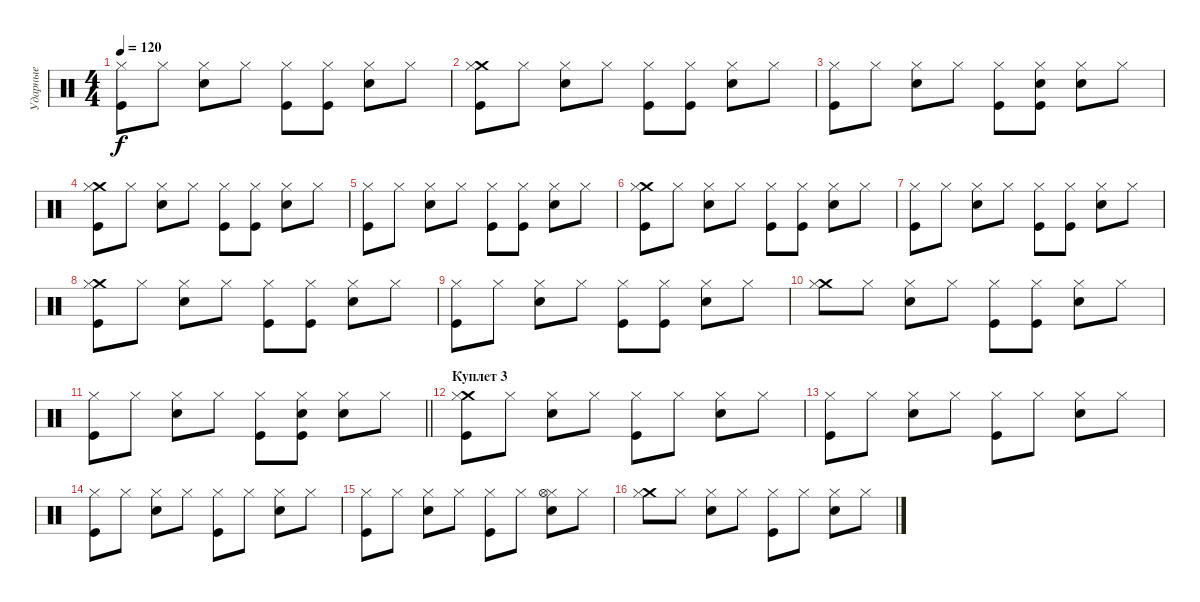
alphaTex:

\track ("Ударные" "Ударные") {instrument percussion}
\staff {score}
\articulation defaults
\ts (4 4)
\tempo 120
\clef neutral
\ks c
("Kick (hit)" "Hi-Hat (closed)").8{dy f} "Hi-Hat (closed)".8 ("Snare (hit) 2" "Hi-Hat (closed)").8 "Hi-Hat (closed)".8 ("Kick (hit)" "Hi-Hat (closed)").8 ("Kick (hit)" "Hi-Hat (closed)").8 ("Snare (hit) 2" "Hi-Hat (closed)").8 "Hi-Hat (closed)".8 |
("Crash medium (hit)" "Hi-Hat (closed)" "Kick (hit)").8 "Hi-Hat (closed)".8 ("Snare (hit) 2" "Hi-Hat (closed)").8 "Hi-Hat (closed)".8 ("Kick (hit)" "Hi-Hat (closed)").8 ("Kick (hit)" "Hi-Hat (closed)").8 ("Snare (hit) 2" "Hi-Hat (closed)").8 "Hi-Hat (closed)".8 |
("Kick (hit)" "Hi-Hat (closed)").8 "Hi-Hat (closed)".8 ("Snare (hit) 2" "Hi-Hat (closed)").8 "Hi-Hat (closed)".8 ("Kick (hit)" "Hi-Hat (closed)").8 ("Kick (hit)" "Hi-Hat (closed)" "Snare (hit) 2").8 ("Snare (hit) 2" "Hi-Hat (closed)").8 "Hi-Hat (closed)".8 |
("Crash medium (hit)" "Hi-Hat (closed)" "Kick (hit)").8 "Hi-Hat (closed)".8 ("Snare (hit) 2" "Hi-Hat (closed)").8 "Hi-Hat (closed)".8 ("Kick (hit)" "Hi-Hat (closed)").8 ("Kick (hit)" "Hi-Hat (closed)").8 ("Snare (hit) 2" "Hi-Hat (closed)").8 "Hi-Hat (closed)".8 |
("Kick (hit)" "Hi-Hat (closed)").8 "Hi-Hat (closed)".8 ("Snare (hit) 2" "Hi-Hat (closed)").8 "Hi-Hat (closed)".8 ("Kick (hit)" "Hi-Hat (closed)").8 ("Kick (hit)" "Hi-Hat (closed)").8 ("Snare (hit) 2" "Hi-Hat (closed)").8 "Hi-Hat (closed)".8 |
("Crash medium (hit)" "Hi-Hat (closed)" "Kick (hit)").8 "Hi-Hat (closed)".8 ("Snare (hit) 2" "Hi-Hat (closed)").8 "Hi-Hat (closed)".8 ("Kick (hit)" "Hi-Hat (closed)").8 ("Kick (hit)" "Hi-Hat (closed)").8 ("Snare (hit) 2" "Hi-Hat (closed)").8 "Hi-Hat (closed)".8 |
("Kick (hit)" "Hi-Hat (closed)").8 "Hi-Hat (closed)".8 ("Snare (hit) 2" "Hi-Hat (closed)").8 "Hi-Hat (closed)".8 ("Kick (hit)" "Hi-Hat (closed)").8 ("Kick (hit)" "Hi-Hat (closed)").8 ("Snare (hit) 2" "Hi-Hat (closed)").8 "Hi-Hat (closed)".8 |
("Crash medium (hit)" "Hi-Hat (closed)" "Kick (hit)").8 "Hi-Hat (closed)".8 ("Snare (hit) 2" "Hi-Hat (closed)").8 "Hi-Hat (closed)".8 ("Kick (hit)" "Hi-Hat (closed)").8 ("Kick (hit)" "Hi-Hat (closed)").8 ("Snare (hit) 2" "Hi-Hat (closed)").8 "Hi-Hat (closed)".8 |
("Kick (hit)" "Hi-Hat (closed)").8 "Hi-Hat (closed)".8 ("Snare (hit) 2" "Hi-Hat (closed)").8 "Hi-Hat (closed)".8 ("Kick (hit)" "Hi-Hat (closed)").8 ("Kick (hit)" "Hi-Hat (closed)").8 ("Snare (hit) 2" "Hi-Hat (closed)").8 "Hi-Hat (closed)".8 |
("Crash medium (hit)" "Hi-Hat (closed)").8 "Hi-Hat (closed)".8 ("Snare (hit) 2" "Hi-Hat (closed)").8 "Hi-Hat (closed)".8 ("Kick (hit)" "Hi-Hat (closed)").8 ("Kick (hit)" "Hi-Hat (closed)").8 ("Snare (hit) 2" "Hi-Hat (closed)").8 "Hi-Hat (closed)".8 |
\barLineRight lightlight
("Kick (hit)" "Hi-Hat (closed)").8 "Hi-Hat (closed)".8 ("Snare (hit) 2" "Hi-Hat (closed)").8 "Hi-Hat (closed)".8 ("Kick (hit)" "Hi-Hat (closed)").8 ("Kick (hit)" "Hi-Hat (closed)" "Snare (hit) 2").8 ("Snare (hit) 2" "Hi-Hat (closed)").8 "Hi-Hat (closed)".8 |
\section ("" "Куплет 3")
("Crash medium (hit)" "Hi-Hat (closed)" "Kick (hit)").8 "Hi-Hat (closed)".8 ("Snare (hit) 2" "Hi-Hat (closed)").8 "Hi-Hat (closed)".8 ("Kick (hit)" "Hi-Hat (closed)").8 "Hi-Hat (closed)".8 ("Snare (hit) 2" "Hi-Hat (closed)").8 "Hi-Hat (closed)".8 |
("Kick (hit)" "Hi-Hat (closed)").8 "Hi-Hat (closed)".8 ("Snare (hit) 2" "Hi-Hat (closed)").8 "Hi-Hat (closed)".8 ("Kick (hit)" "Hi-Hat (closed)").8 "Hi-Hat (closed)".8 ("Snare (hit) 2" "Hi-Hat (closed)").8 "Hi-Hat (closed)".8 |
("Hi-Hat (closed)" "Kick (hit)").8 "Hi-Hat (closed)".8 ("Snare (hit) 2" "Hi-Hat (closed)").8 "Hi-Hat (closed)".8 ("Kick (hit)" "Hi-Hat (closed)").8 "Hi-Hat (closed)".8 ("Snare (hit) 2" "Hi-Hat (closed)").8 "Hi-Hat (closed)".8 |
("Kick (hit)" "Hi-Hat (closed)").8 "Hi-Hat (closed)".8 ("Snare (hit) 2" "Hi-Hat (closed)").8 "Hi-Hat (closed)".8 ("Kick (hit)" "Hi-Hat (closed)").8 "Hi-Hat (closed)".8 ("Snare (hit) 2" "Hi-Hat (closed)" "Hi-Hat (open)").8 "Hi-Hat (closed)".8 |
("Crash medium (hit)" "Hi-Hat (closed)").8 "Hi-Hat (closed)".8 ("Snare (hit) 2" "Hi-Hat (closed)").8 "Hi-Hat (closed)".8 ("Kick (hit)" "Hi-Hat (closed)").8 "Hi-Hat (closed)".8 ("Snare (hit) 2" "Hi-Hat (closed)").8 "Hi-Hat (closed)".8
